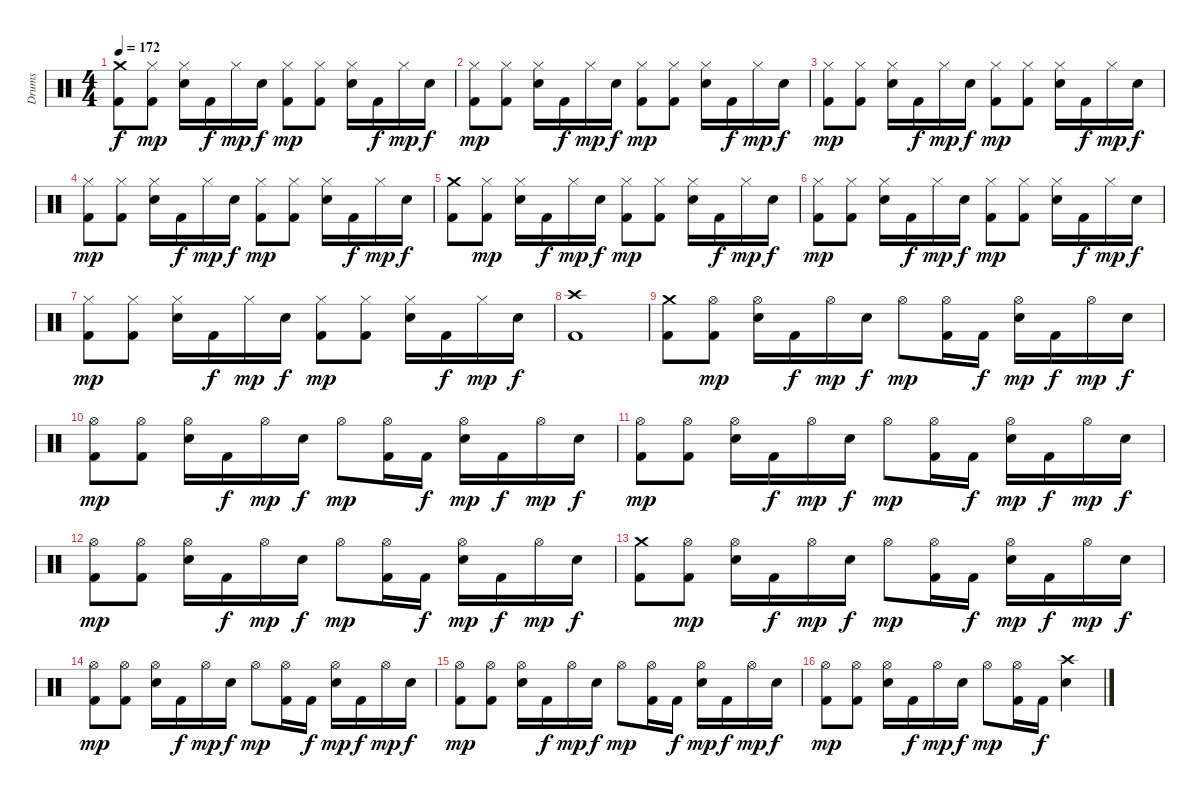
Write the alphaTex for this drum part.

\track ("Drums" "Drums") {instrument percussion}
\staff {score}
\articulation defaults
\ts (4 4)
\tempo 172
\clef neutral
\ks c
("Crash medium (hit)" "Kick (hit) 2").8{dy f} ("Hi-Hat (closed)" "Kick (hit) 2").8{dy mp} ("Hi-Hat (closed)" "Snare (hit) 2").16 "Kick (hit) 2".16{dy f} "Hi-Hat (closed)".16{dy mp} "Snare (hit) 2".16{dy f} ("Hi-Hat (closed)" "Kick (hit) 2").8{dy mp} ("Hi-Hat (closed)" "Kick (hit) 2").8 ("Hi-Hat (closed)" "Snare (hit) 2").16 "Kick (hit) 2".16{dy f} "Hi-Hat (closed)".16{dy mp} "Snare (hit) 2".16{dy f} |
("Hi-Hat (closed)" "Kick (hit) 2").8{dy mp} ("Hi-Hat (closed)" "Kick (hit) 2").8 ("Hi-Hat (closed)" "Snare (hit) 2").16 "Kick (hit) 2".16{dy f} "Hi-Hat (closed)".16{dy mp} "Snare (hit) 2".16{dy f} ("Hi-Hat (closed)" "Kick (hit) 2").8{dy mp} ("Hi-Hat (closed)" "Kick (hit) 2").8 ("Hi-Hat (closed)" "Snare (hit) 2").16 "Kick (hit) 2".16{dy f} "Hi-Hat (closed)".16{dy mp} "Snare (hit) 2".16{dy f} |
("Hi-Hat (closed)" "Kick (hit) 2").8{dy mp} ("Hi-Hat (closed)" "Kick (hit) 2").8 ("Hi-Hat (closed)" "Snare (hit) 2").16 "Kick (hit) 2".16{dy f} "Hi-Hat (closed)".16{dy mp} "Snare (hit) 2".16{dy f} ("Hi-Hat (closed)" "Kick (hit) 2").8{dy mp} ("Hi-Hat (closed)" "Kick (hit) 2").8 ("Hi-Hat (closed)" "Snare (hit) 2").16 "Kick (hit) 2".16{dy f} "Hi-Hat (closed)".16{dy mp} "Snare (hit) 2".16{dy f} |
("Hi-Hat (closed)" "Kick (hit) 2").8{dy mp} ("Hi-Hat (closed)" "Kick (hit) 2").8 ("Hi-Hat (closed)" "Snare (hit) 2").16 "Kick (hit) 2".16{dy f} "Hi-Hat (closed)".16{dy mp} "Snare (hit) 2".16{dy f} ("Hi-Hat (closed)" "Kick (hit) 2").8{dy mp} ("Hi-Hat (closed)" "Kick (hit) 2").8 ("Hi-Hat (closed)" "Snare (hit) 2").16 "Kick (hit) 2".16{dy f} "Hi-Hat (closed)".16{dy mp} "Snare (hit) 2".16{dy f} |
("Crash medium (hit)" "Kick (hit) 2").8 ("Hi-Hat (closed)" "Kick (hit) 2").8{dy mp} ("Hi-Hat (closed)" "Snare (hit) 2").16 "Kick (hit) 2".16{dy f} "Hi-Hat (closed)".16{dy mp} "Snare (hit) 2".16{dy f} ("Hi-Hat (closed)" "Kick (hit) 2").8{dy mp} ("Hi-Hat (closed)" "Kick (hit) 2").8 ("Hi-Hat (closed)" "Snare (hit) 2").16 "Kick (hit) 2".16{dy f} "Hi-Hat (closed)".16{dy mp} "Snare (hit) 2".16{dy f} |
("Hi-Hat (closed)" "Kick (hit) 2").8{dy mp} ("Hi-Hat (closed)" "Kick (hit) 2").8 ("Hi-Hat (closed)" "Snare (hit) 2").16 "Kick (hit) 2".16{dy f} "Hi-Hat (closed)".16{dy mp} "Snare (hit) 2".16{dy f} ("Hi-Hat (closed)" "Kick (hit) 2").8{dy mp} ("Hi-Hat (closed)" "Kick (hit) 2").8 ("Hi-Hat (closed)" "Snare (hit) 2").16 "Kick (hit) 2".16{dy f} "Hi-Hat (closed)".16{dy mp} "Snare (hit) 2".16{dy f} |
("Hi-Hat (closed)" "Kick (hit) 2").8{dy mp} ("Hi-Hat (closed)" "Kick (hit) 2").8 ("Hi-Hat (closed)" "Snare (hit) 2").16 "Kick (hit) 2".16{dy f} "Hi-Hat (closed)".16{dy mp} "Snare (hit) 2".16{dy f} ("Hi-Hat (closed)" "Kick (hit) 2").8{dy mp} ("Hi-Hat (closed)" "Kick (hit) 2").8 ("Hi-Hat (closed)" "Snare (hit) 2").16 "Kick (hit) 2".16{dy f} "Hi-Hat (closed)".16{dy mp} "Snare (hit) 2".16{dy f} |
("Crash high (hit)" "Kick (hit) 2").1 |
("Crash medium (hit)" "Kick (hit) 2").8 ("Hi-Hat (open)" "Kick (hit) 2").8{dy mp} ("Hi-Hat (open)" "Snare (hit) 2").16 "Kick (hit) 2".16{dy f} "Hi-Hat (open)".16{dy mp} "Snare (hit) 2".16{dy f} "Hi-Hat (open)".8{dy mp} ("Hi-Hat (open)" "Kick (hit) 2").16 "Kick (hit) 2".16{dy f} ("Hi-Hat (open)" "Snare (hit) 2").16{dy mp} "Kick (hit) 2".16{dy f} "Hi-Hat (open)".16{dy mp} "Snare (hit) 2".16{dy f} |
("Hi-Hat (open)" "Kick (hit) 2").8{dy mp} ("Hi-Hat (open)" "Kick (hit) 2").8 ("Hi-Hat (open)" "Snare (hit) 2").16 "Kick (hit) 2".16{dy f} "Hi-Hat (open)".16{dy mp} "Snare (hit) 2".16{dy f} "Hi-Hat (open)".8{dy mp} ("Hi-Hat (open)" "Kick (hit) 2").16 "Kick (hit) 2".16{dy f} ("Hi-Hat (open)" "Snare (hit) 2").16{dy mp} "Kick (hit) 2".16{dy f} "Hi-Hat (open)".16{dy mp} "Snare (hit) 2".16{dy f} |
("Hi-Hat (open)" "Kick (hit) 2").8{dy mp} ("Hi-Hat (open)" "Kick (hit) 2").8 ("Hi-Hat (open)" "Snare (hit) 2").16 "Kick (hit) 2".16{dy f} "Hi-Hat (open)".16{dy mp} "Snare (hit) 2".16{dy f} "Hi-Hat (open)".8{dy mp} ("Hi-Hat (open)" "Kick (hit) 2").16 "Kick (hit) 2".16{dy f} ("Hi-Hat (open)" "Snare (hit) 2").16{dy mp} "Kick (hit) 2".16{dy f} "Hi-Hat (open)".16{dy mp} "Snare (hit) 2".16{dy f} |
("Hi-Hat (open)" "Kick (hit) 2").8{dy mp} ("Hi-Hat (open)" "Kick (hit) 2").8 ("Hi-Hat (open)" "Snare (hit) 2").16 "Kick (hit) 2".16{dy f} "Hi-Hat (open)".16{dy mp} "Snare (hit) 2".16{dy f} "Hi-Hat (open)".8{dy mp} ("Hi-Hat (open)" "Kick (hit) 2").16 "Kick (hit) 2".16{dy f} ("Hi-Hat (open)" "Snare (hit) 2").16{dy mp} "Kick (hit) 2".16{dy f} "Hi-Hat (open)".16{dy mp} "Snare (hit) 2".16{dy f} |
("Crash medium (hit)" "Kick (hit) 2").8 ("Hi-Hat (open)" "Kick (hit) 2").8{dy mp} ("Hi-Hat (open)" "Snare (hit) 2").16 "Kick (hit) 2".16{dy f} "Hi-Hat (open)".16{dy mp} "Snare (hit) 2".16{dy f} "Hi-Hat (open)".8{dy mp} ("Hi-Hat (open)" "Kick (hit) 2").16 "Kick (hit) 2".16{dy f} ("Hi-Hat (open)" "Snare (hit) 2").16{dy mp} "Kick (hit) 2".16{dy f} "Hi-Hat (open)".16{dy mp} "Snare (hit) 2".16{dy f} |
("Hi-Hat (open)" "Kick (hit) 2").8{dy mp} ("Hi-Hat (open)" "Kick (hit) 2").8 ("Hi-Hat (open)" "Snare (hit) 2").16 "Kick (hit) 2".16{dy f} "Hi-Hat (open)".16{dy mp} "Snare (hit) 2".16{dy f} "Hi-Hat (open)".8{dy mp} ("Hi-Hat (open)" "Kick (hit) 2").16 "Kick (hit) 2".16{dy f} ("Hi-Hat (open)" "Snare (hit) 2").16{dy mp} "Kick (hit) 2".16{dy f} "Hi-Hat (open)".16{dy mp} "Snare (hit) 2".16{dy f} |
("Hi-Hat (open)" "Kick (hit) 2").8{dy mp} ("Hi-Hat (open)" "Kick (hit) 2").8 ("Hi-Hat (open)" "Snare (hit) 2").16 "Kick (hit) 2".16{dy f} "Hi-Hat (open)".16{dy mp} "Snare (hit) 2".16{dy f} "Hi-Hat (open)".8{dy mp} ("Hi-Hat (open)" "Kick (hit) 2").16 "Kick (hit) 2".16{dy f} ("Hi-Hat (open)" "Snare (hit) 2").16{dy mp} "Kick (hit) 2".16{dy f} "Hi-Hat (open)".16{dy mp} "Snare (hit) 2".16{dy f} |
("Hi-Hat (open)" "Kick (hit) 2").8{dy mp} ("Hi-Hat (open)" "Kick (hit) 2").8 ("Hi-Hat (open)" "Snare (hit) 2").16 "Kick (hit) 2".16{dy f} "Hi-Hat (open)".16{dy mp} "Snare (hit) 2".16{dy f} "Hi-Hat (open)".8{dy mp} ("Hi-Hat (open)" "Kick (hit) 2").16 "Kick (hit) 2".16{dy f} ("Crash high (hit)" "Snare (hit) 2").4
